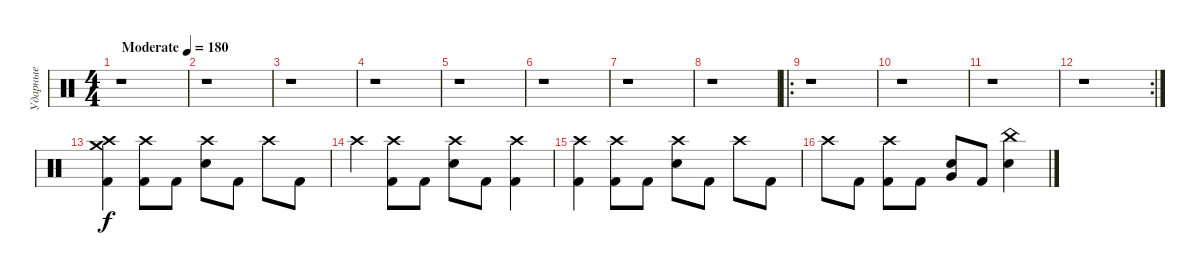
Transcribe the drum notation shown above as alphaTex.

\track ("Ударные" "Ударные") {instrument percussion}
\staff {score}
\articulation defaults
\ts (4 4)
\tempo (180 "Moderate")
\clef neutral
\ks c
r.1{dy f} |
r.1 |
r.1 |
r.1 |
r.1 |
r.1 |
r.1 |
r.1 |
\ro
r.1 |
r.1 |
r.1 |
\rc 2
r.1 |
("Crash high (hit)" "Crash medium (hit)" "Kick (hit) 2").4 ("Crash high (hit)" "Kick (hit) 2").8 "Kick (hit) 2".8 ("Crash high (hit)" "Electric Snare (hit)").8 "Kick (hit) 2".8 "Crash high (hit)".8 "Kick (hit) 2".8 |
"Crash high (hit)".4 ("Crash high (hit)" "Kick (hit) 2").8 "Kick (hit) 2".8 ("Crash high (hit)" "Electric Snare (hit)").8 "Kick (hit) 2".8 ("Crash high (hit)" "Kick (hit) 2").4 |
("Crash high (hit)" "Kick (hit) 2").4 ("Crash high (hit)" "Kick (hit) 2").8 "Kick (hit) 2".8 ("Crash high (hit)" "Electric Snare (hit)").8 "Kick (hit) 2".8 "Crash high (hit)".8 "Kick (hit) 2".8 |
"Crash high (hit)".8 "Kick (hit) 2".8 ("Crash high (hit)" "Kick (hit) 2").8 "Kick (hit) 2".8 ("Very Low Tom (hit)" "Electric Snare (hit)").8 "Kick (hit) 2".8 ("China (hit)" "Electric Snare (hit)").4
